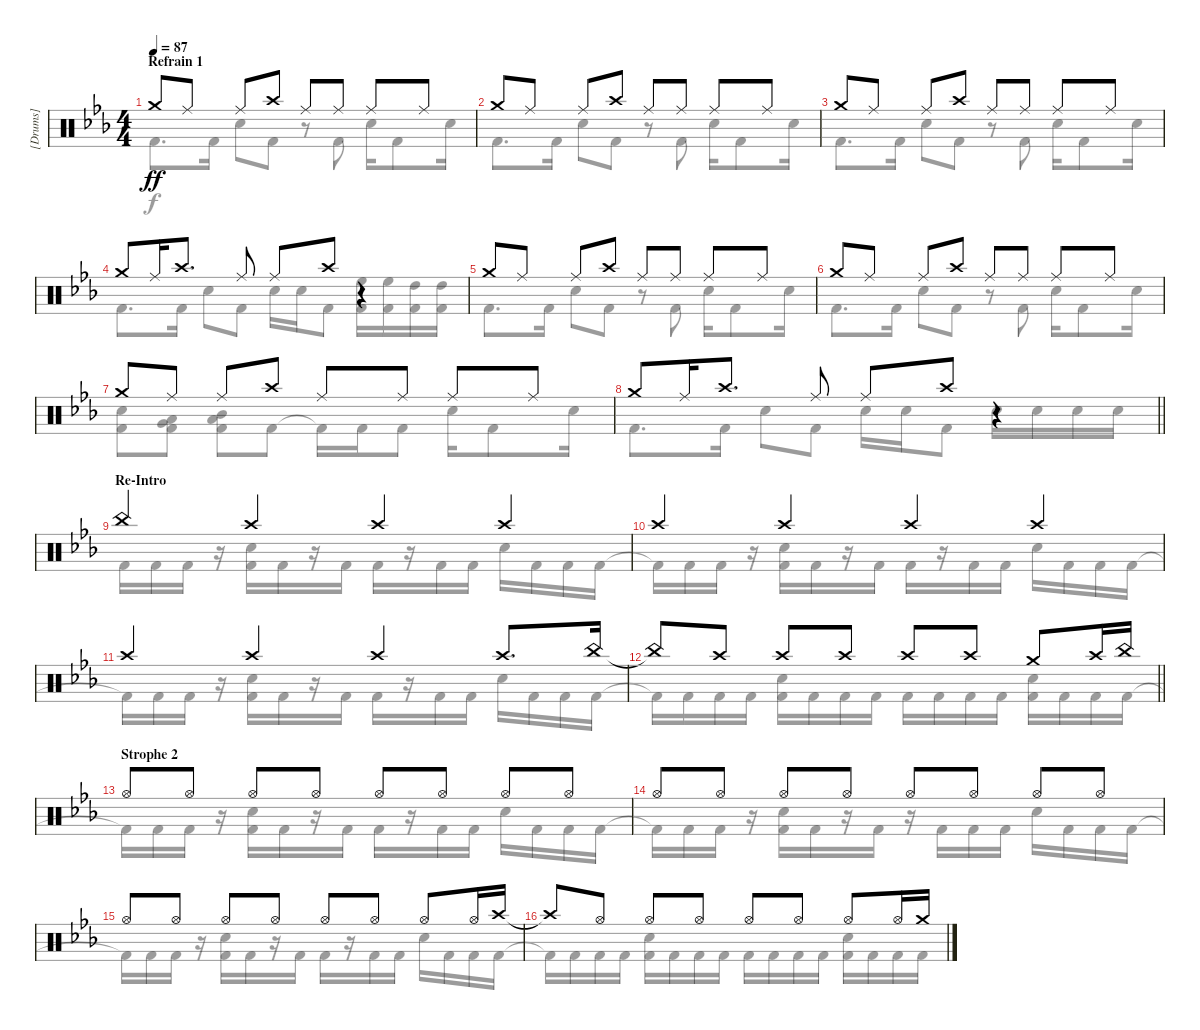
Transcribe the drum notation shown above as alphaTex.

\track ("[Drums]" "[Drums]") {instrument percussion}
\staff {score}
\articulation defaults
\voice
\ts (4 4)
\section ("" "Refrain 1")
\tempo 87
\clef neutral
\ks cminor "Crash medium (hit)".8{dy ff} "Ride (middle)".8 "Ride (middle)".8 "Crash high (hit)".8 "Ride (middle)".8 "Ride (middle)".8 "Ride (middle)".8 "Ride (middle)".8
|
"Crash medium (hit)".8 "Ride (middle)".8 "Ride (middle)".8 "Crash high (hit)".8 "Ride (middle)".8 "Ride (middle)".8 "Ride (middle)".8 "Ride (middle)".8 |
"Crash medium (hit)".8 "Ride (middle)".8 "Ride (middle)".8 "Crash high (hit)".8 "Ride (middle)".8 "Ride (middle)".8 "Ride (middle)".8 "Ride (middle)".8 |
"Crash medium (hit)".8 "Ride (middle)".16 "Crash high (hit)".8{d} "Ride (middle)".8 "Ride (middle)".8 "Crash high (hit)".8 r.4 |
"Crash medium (hit)".8 "Ride (middle)".8 "Ride (middle)".8 "Crash high (hit)".8 "Ride (middle)".8 "Ride (middle)".8 "Ride (middle)".8 "Ride (middle)".8 |
"Crash medium (hit)".8 "Ride (middle)".8 "Ride (middle)".8 "Crash high (hit)".8 "Ride (middle)".8 "Ride (middle)".8 "Ride (middle)".8 "Ride (middle)".8 |
"Crash medium (hit)".8 "Ride (middle)".8 "Ride (middle)".8 "Crash high (hit)".8 "Ride (middle)".8 "Ride (middle)".8 "Ride (middle)".8 "Ride (middle)".8 |
\barLineRight lightlight "Crash medium (hit)".8 "Ride (middle)".16 "Crash high (hit)".8{d} "Ride (middle)".8 "Ride (middle)".8 "Crash high (hit)".8
r.4 |
\section ("" "Re-Intro")
"China (hit)".4 "Crash high (hit)".4 "Crash high (hit)".4 "Crash high (hit)".4 |
"Crash high (hit)".4 "Crash high (hit)".4 "Crash high (hit)".4 "Crash high (hit)".4 |
"Crash high (hit)".4 "Crash high (hit)".4 "Crash high (hit)".4 "Crash high (hit)".8{d} "China (hit)".16 |
\barLineRight lightlight "China (hit)"{t}.8 "Crash high (hit)".8 "Crash high (hit)".8 "Crash high (hit)".8 "Crash high (hit)".8 "Crash high (hit)".8 "Crash medium (hit)".8 "Crash high (hit)".16 "China (hit)".16
|
\section ("" "Strophe 2")
"Hi-Hat (open)".8 "Hi-Hat (open)".8 "Hi-Hat (open)".8 "Hi-Hat (open)".8 "Hi-Hat (open)".8 "Hi-Hat (open)".8 "Hi-Hat (open)".8 "Hi-Hat (open)".8 |
"Hi-Hat (open)".8 "Hi-Hat (open)".8 "Hi-Hat (open)".8 "Hi-Hat (open)".8 "Hi-Hat (open)".8 "Hi-Hat (open)".8 "Hi-Hat (open)".8 "Hi-Hat (open)".8 |
"Hi-Hat (open)".8 "Hi-Hat (open)".8 "Hi-Hat (open)".8 "Hi-Hat (open)".8 "Hi-Hat (open)".8 "Hi-Hat (open)".8 "Hi-Hat (open)".8 "Hi-Hat (open)".16 "Crash high (hit)".16 |
"Crash high (hit)"{t}.8 "Hi-Hat (open)".8 "Hi-Hat (open)".8 "Hi-Hat (open)".8 "Hi-Hat (open)".8 "Hi-Hat (open)".8 "Hi-Hat (open)".8 "Hi-Hat (open)".16 "Crash medium (hit)".16
\voice
\clef neutral
\ottava regular
\simile none
\ks cminor "Kick (hit) 2".8{d dy f} "Kick (hit) 2".16 "Snare (hit) 2".8 "Kick (hit) 2".8
r.8 "Kick (hit) 2".8 "Snare (hit) 2".16 "Kick (hit) 2".8 "Snare (hit) 2".16 |
"Kick (hit) 2".8{d} "Kick (hit) 2".16 "Snare (hit) 2".8 "Kick (hit) 2".8 r.8 "Kick (hit) 2".8 "Snare (hit) 2".16 "Kick (hit) 2".8 "Snare (hit) 2".16 |
"Kick (hit) 2".8{d} "Kick (hit) 2".16 "Snare (hit) 2".8 "Kick (hit) 2".8 r.8 "Kick (hit) 2".8 "Snare (hit) 2".16 "Kick (hit) 2".8 "Snare (hit) 2".16 |
"Kick (hit) 2".8{d} "Kick (hit) 2".16 "Snare (hit) 2".8 "Kick (hit) 2".8 "Snare (hit) 2".16 "Snare (hit) 2".16 "Kick (hit) 2".8 ("High Floor Tom (hit)" "Kick (hit) 2").16 ("High Floor Tom (hit)" "Kick (hit) 2").16 ("High Tom (hit)" "Kick (hit) 2").16 ("High Tom (hit)" "Kick (hit) 2").16 |
"Kick (hit) 2".8{d} "Kick (hit) 2".16 "Snare (hit) 2".8 "Kick (hit) 2".8 r.8 "Kick (hit) 2".8 "Snare (hit) 2".16 "Kick (hit) 2".8 "Snare (hit) 2".16 |
"Kick (hit) 2".8{d} "Kick (hit) 2".16 "Snare (hit) 2".8 "Kick (hit) 2".8 r.8 "Kick (hit) 2".8 "Snare (hit) 2".16 "Kick (hit) 2".8 "Snare (hit) 2".16 |
("Kick (hit) 2" "Snare (hit) 2").8 ("Kick (hit) 2" "Very Low Tom (hit)" "Low Tom (hit)").8 ("Kick (hit) 2" "Low Tom (hit)" "Mid Tom (hit)").8 "Kick (hit) 2".8 "Kick (hit) 2"{t}.16 "Kick (hit) 2".16 "Kick (hit) 2".8 "Snare (hit) 2".16 "Kick (hit) 2".8 "Snare (hit) 2".16 |
\barLineRight lightlight "Kick (hit) 2".8{d} "Kick (hit) 2".16 "Snare (hit) 2".8 "Kick (hit) 2".8 "Snare (hit) 2".16 "Snare (hit) 2".16 "Kick (hit) 2".8 "Snare (hit) 2".16 "Snare (hit) 2".16 "Snare (hit) 2".16 "Snare (hit) 2".16
|
"Kick (hit) 2".16 "Kick (hit) 2".16 "Kick (hit) 2".16 r.16 ("Kick (hit) 2" "Snare (hit) 2").16 "Kick (hit) 2".16 r.16 "Kick (hit) 2".16 "Kick (hit) 2".16 r.16 "Kick (hit) 2".16 "Kick (hit) 2".16 "Snare (hit) 2".16 "Kick (hit) 2".16 "Kick (hit) 2".16 "Kick (hit) 2".16 |
"Kick (hit) 2"{t}.16 "Kick (hit) 2".16 "Kick (hit) 2".16 r.16 ("Kick (hit) 2" "Snare (hit) 2").16 "Kick (hit) 2".16 r.16 "Kick (hit) 2".16 "Kick (hit) 2".16 r.16 "Kick (hit) 2".16 "Kick (hit) 2".16 "Snare (hit) 2".16 "Kick (hit) 2".16 "Kick (hit) 2".16 "Kick (hit) 2".16 |
"Kick (hit) 2"{t}.16 "Kick (hit) 2".16 "Kick (hit) 2".16 r.16 ("Kick (hit) 2" "Snare (hit) 2").16 "Kick (hit) 2".16 r.16 "Kick (hit) 2".16 "Kick (hit) 2".16 r.16 "Kick (hit) 2".16 "Kick (hit) 2".16 "Snare (hit) 2".16 "Kick (hit) 2".16 "Kick (hit) 2".16 "Kick (hit) 2".16 |
\barLineRight lightlight "Kick (hit) 2"{t}.16 "Kick (hit) 2".16 "Kick (hit) 2".16 "Kick (hit) 2".16
("Kick (hit) 2" "Snare (hit) 2").16 "Kick (hit) 2".16 "Kick (hit) 2".16 "Kick (hit) 2".16 "Kick (hit) 2".16 "Kick (hit) 2".16 "Kick (hit) 2".16 "Kick (hit) 2".16 ("Kick (hit) 2" "Snare (hit) 2").16 "Kick (hit) 2".16 "Kick (hit) 2".16 "Kick (hit) 2".16 |
"Kick (hit) 2"{t}.16 "Kick (hit) 2".16 "Kick (hit) 2".16 r.16 ("Kick (hit) 2" "Snare (hit) 2").16 "Kick (hit) 2".16 r.16 "Kick (hit) 2".16 "Kick (hit) 2".16 r.16 "Kick (hit) 2".16 "Kick (hit) 2".16 "Snare (hit) 2".16 "Kick (hit) 2".16 "Kick (hit) 2".16 "Kick (hit) 2".16 |
"Kick (hit) 2"{t}.16 "Kick (hit) 2".16 "Kick (hit) 2".16 r.16 ("Kick (hit) 2" "Snare (hit) 2").16 "Kick (hit) 2".16 r.16 "Kick (hit) 2".16 r.16 "Kick (hit) 2".16 "Kick (hit) 2".16 "Kick (hit) 2".16 "Snare (hit) 2".16 "Kick (hit) 2".16 "Kick (hit) 2".16 "Kick (hit) 2".16 |
"Kick (hit) 2"{t}.16 "Kick (hit) 2".16 "Kick (hit) 2".16 r.16 ("Kick (hit) 2" "Snare (hit) 2").16 "Kick (hit) 2".16 r.16 "Kick (hit) 2".16 "Kick (hit) 2".16 r.16 "Kick (hit) 2".16 "Kick (hit) 2".16 "Snare (hit) 2".16 "Kick (hit) 2".16 "Kick (hit) 2".16 "Kick (hit) 2".16 |
"Kick (hit) 2"{t}.16 "Kick (hit) 2".16 "Kick (hit) 2".16 "Kick (hit) 2".16 ("Kick (hit) 2" "Snare (hit) 2").16 "Kick (hit) 2".16 "Kick (hit) 2".16 "Kick (hit) 2".16 "Kick (hit) 2".16 "Kick (hit) 2".16 "Kick (hit) 2".16 "Kick (hit) 2".16 ("Kick (hit) 2" "Snare (hit) 2").16 "Kick (hit) 2".16 "Kick (hit) 2".16 "Kick (hit) 2".16
